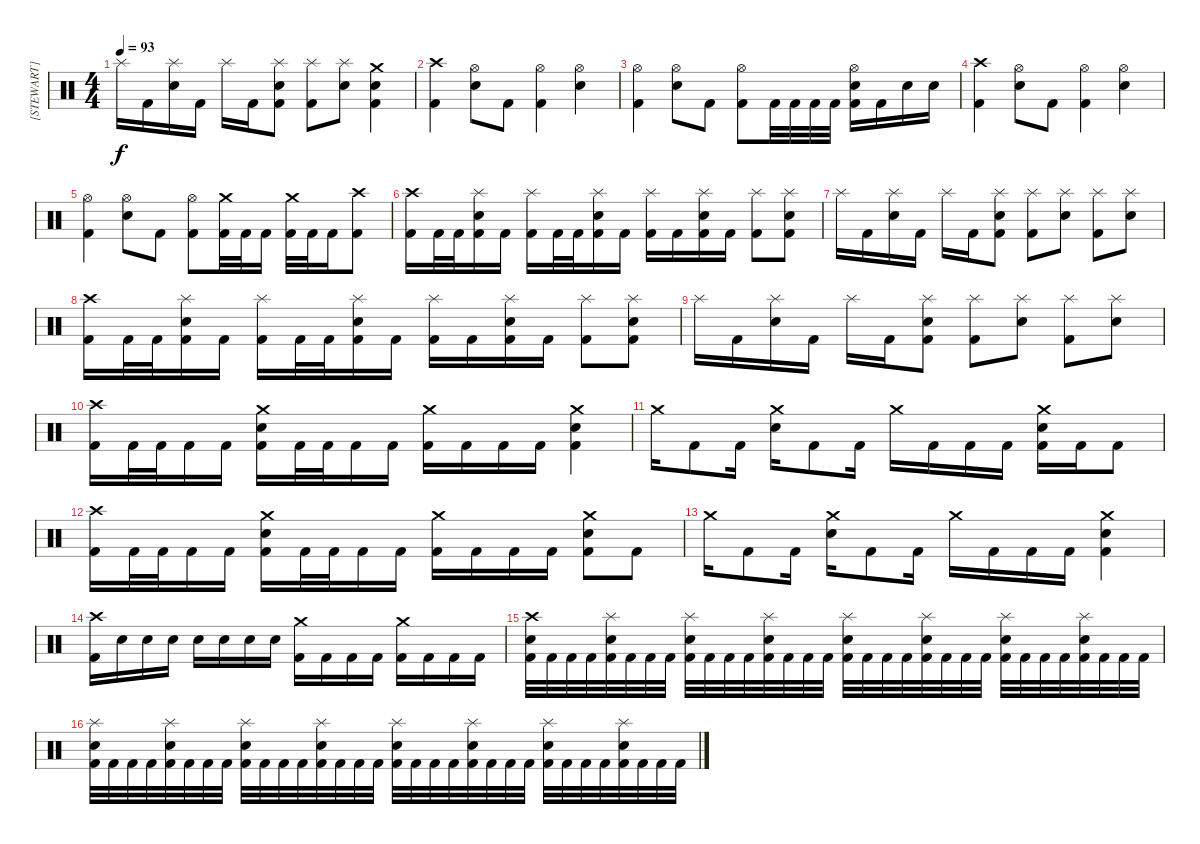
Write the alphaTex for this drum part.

\track ("[STEWART]" "[STEWART]") {instrument percussion}
\staff {score}
\articulation defaults
\ts (4 4)
\tempo 93
\clef neutral
\ks c "Splash (hit)".16{dy f} "Kick (hit) 2".16
("Splash (hit)" "Electric Snare (hit)").16 "Kick (hit) 2".16 "Splash (hit)".16 "Kick (hit) 2".16 ("Splash (hit)" "Electric Snare (hit)" "Kick (hit) 2").8 ("Splash (hit)" "Kick (hit) 2").8 ("Splash (hit)" "Electric Snare (hit)").8 ("Crash medium (hit)" "Electric Snare (hit)" "Kick (hit) 2").4 |
("Crash high (hit)" "Kick (hit) 2").4 ("Hi-Hat (open)" "Electric Snare (hit)").8 "Kick (hit) 2".8 ("Hi-Hat (open)" "Kick (hit) 2").4 ("Hi-Hat (open)" "Electric Snare (hit)").4 |
("Hi-Hat (open)" "Kick (hit) 2").4 ("Hi-Hat (open)" "Electric Snare (hit)").8 "Kick (hit) 2".8 ("Hi-Hat (open)" "Kick (hit) 2").8 "Kick (hit) 2".32 "Kick (hit) 2".32 "Kick (hit) 2".32 "Kick (hit) 2".32 ("Hi-Hat (open)" "Electric Snare (hit)" "Kick (hit) 2").16 "Kick (hit) 2".16 "Electric Snare (hit)".16 "Electric Snare (hit)".16 |
("Crash high (hit)" "Kick (hit) 2").4 ("Hi-Hat (open)" "Electric Snare (hit)").8 "Kick (hit) 2".8 ("Hi-Hat (open)" "Kick (hit) 2").4 ("Hi-Hat (open)" "Electric Snare (hit)").4 |
("Hi-Hat (open)" "Kick (hit) 2").4 ("Hi-Hat (open)" "Electric Snare (hit)").8 "Kick (hit) 2".8 ("Hi-Hat (open)" "Kick (hit) 2").8 ("Crash medium (hit)" "Kick (hit) 2").32 "Kick (hit) 2".32 "Kick (hit) 2".16 ("Crash medium (hit)" "Kick (hit) 2").32 "Kick (hit) 2".32 "Kick (hit) 2".16 ("Crash high (hit)" "Kick (hit) 2").8 |
("Crash high (hit)" "Kick (hit) 2").16 "Kick (hit) 2".32 "Kick (hit) 2".32 ("Splash (hit)" "Electric Snare (hit)" "Kick (hit) 2").16 "Kick (hit) 2".16 ("Splash (hit)" "Kick (hit) 2").16 "Kick (hit) 2".32 "Kick (hit) 2".32 ("Splash (hit)" "Electric Snare (hit)" "Kick (hit) 2").16 "Kick (hit) 2".16 ("Splash (hit)" "Kick (hit) 2").16 "Kick (hit) 2".16 ("Splash (hit)" "Electric Snare (hit)" "Kick (hit) 2").16 "Kick (hit) 2".16 ("Splash (hit)" "Kick (hit) 2").8 ("Splash (hit)" "Electric Snare (hit)" "Kick (hit) 2").8 |
"Splash (hit)".16 "Kick (hit) 2".16 ("Splash (hit)" "Electric Snare (hit)").16 "Kick (hit) 2".16 "Splash (hit)".16 "Kick (hit) 2".16 ("Splash (hit)" "Electric Snare (hit)" "Kick (hit) 2").8 ("Splash (hit)" "Kick (hit) 2").8 ("Splash (hit)" "Electric Snare (hit)").8 ("Splash (hit)" "Kick (hit) 2").8 ("Splash (hit)" "Electric Snare (hit)").8 |
("Crash high (hit)" "Kick (hit) 2").16 "Kick (hit) 2".32 "Kick (hit) 2".32 ("Splash (hit)" "Electric Snare (hit)" "Kick (hit) 2").16 "Kick (hit) 2".16 ("Splash (hit)" "Kick (hit) 2").16 "Kick (hit) 2".32 "Kick (hit) 2".32 ("Splash (hit)" "Electric Snare (hit)" "Kick (hit) 2").16 "Kick (hit) 2".16 ("Splash (hit)" "Kick (hit) 2").16 "Kick (hit) 2".16 ("Splash (hit)" "Electric Snare (hit)" "Kick (hit) 2").16 "Kick (hit) 2".16 ("Splash (hit)" "Kick (hit) 2").8 ("Splash (hit)" "Electric Snare (hit)" "Kick (hit) 2").8 |
"Splash (hit)".16 "Kick (hit) 2".16 ("Splash (hit)" "Electric Snare (hit)").16 "Kick (hit) 2".16 "Splash (hit)".16 "Kick (hit) 2".16 ("Splash (hit)" "Electric Snare (hit)" "Kick (hit) 2").8 ("Splash (hit)" "Kick (hit) 2").8 ("Splash (hit)" "Electric Snare (hit)").8 ("Splash (hit)" "Kick (hit) 2").8 ("Splash (hit)" "Electric Snare (hit)").8 |
("Crash high (hit)" "Kick (hit) 2").16 "Kick (hit) 2".32 "Kick (hit) 2".32 "Kick (hit) 2".16 "Kick (hit) 2".16 ("Crash medium (hit)" "Electric Snare (hit)" "Kick (hit) 2").16 "Kick (hit) 2".32 "Kick (hit) 2".32 "Kick (hit) 2".16 "Kick (hit) 2".16 ("Crash medium (hit)" "Kick (hit) 2").16 "Kick (hit) 2".16 "Kick (hit) 2".16 "Kick (hit) 2".16 ("Crash medium (hit)" "Electric Snare (hit)" "Kick (hit) 2").4 |
"Crash medium (hit)".16 "Kick (hit) 2".8 "Kick (hit) 2".16 ("Crash medium (hit)" "Electric Snare (hit)").16 "Kick (hit) 2".8 "Kick (hit) 2".16 "Crash medium (hit)".16 "Kick (hit) 2".16 "Kick (hit) 2".16 "Kick (hit) 2".16 ("Crash medium (hit)" "Electric Snare (hit)" "Kick (hit) 2").16 "Kick (hit) 2".16 "Kick (hit) 2".8 |
("Crash high (hit)" "Kick (hit) 2").16 "Kick (hit) 2".32 "Kick (hit) 2".32 "Kick (hit) 2".16 "Kick (hit) 2".16 ("Crash medium (hit)" "Electric Snare (hit)" "Kick (hit) 2").16 "Kick (hit) 2".32 "Kick (hit) 2".32 "Kick (hit) 2".16 "Kick (hit) 2".16 ("Crash medium (hit)" "Kick (hit) 2").16 "Kick (hit) 2".16 "Kick (hit) 2".16 "Kick (hit) 2".16 ("Crash medium (hit)" "Electric Snare (hit)" "Kick (hit) 2").8 "Kick (hit) 2".8 |
"Crash medium (hit)".16 "Kick (hit) 2".8 "Kick (hit) 2".16 ("Crash medium (hit)" "Electric Snare (hit)").16 "Kick (hit) 2".8 "Kick (hit) 2".16 "Crash medium (hit)".16 "Kick (hit) 2".16 "Kick (hit) 2".16 "Kick (hit) 2".16 ("Crash medium (hit)" "Electric Snare (hit)" "Kick (hit) 2").4 |
("Crash high (hit)" "Kick (hit) 2").16 "Electric Snare (hit)".16 "Electric Snare (hit)".16 "Electric Snare (hit)".16 "Electric Snare (hit)".16 "Electric Snare (hit)".16 "Electric Snare (hit)".16 "Electric Snare (hit)".16 ("Crash medium (hit)" "Kick (hit) 2").16 "Kick (hit) 2".16 "Kick (hit) 2".16 "Kick (hit) 2".16 ("Crash medium (hit)" "Kick (hit) 2").16 "Kick (hit) 2".16 "Kick (hit) 2".16 "Kick (hit) 2".16 |
("Crash high (hit)" "Electric Snare (hit)" "Kick (hit) 2").32 "Kick (hit) 2".32 "Kick (hit) 2".32 "Kick (hit) 2".32 ("Splash (hit)" "Electric Snare (hit)" "Kick (hit) 2").32 "Kick (hit) 2".32 "Kick (hit) 2".32 "Kick (hit) 2".32 ("Splash (hit)" "Electric Snare (hit)" "Kick (hit) 2").32 "Kick (hit) 2".32 "Kick (hit) 2".32 "Kick (hit) 2".32 ("Splash (hit)" "Electric Snare (hit)" "Kick (hit) 2").32 "Kick (hit) 2".32 "Kick (hit) 2".32 "Kick (hit) 2".32 ("Splash (hit)" "Electric Snare (hit)" "Kick (hit) 2").32 "Kick (hit) 2".32 "Kick (hit) 2".32 "Kick (hit) 2".32 ("Splash (hit)" "Electric Snare (hit)" "Kick (hit) 2").32 "Kick (hit) 2".32 "Kick (hit) 2".32 "Kick (hit) 2".32 ("Splash (hit)" "Electric Snare (hit)" "Kick (hit) 2").32 "Kick (hit) 2".32 "Kick (hit) 2".32 "Kick (hit) 2".32 ("Splash (hit)" "Electric Snare (hit)" "Kick (hit) 2").32 "Kick (hit) 2".32 "Kick (hit) 2".32 "Kick (hit) 2".32 |
("Splash (hit)" "Electric Snare (hit)" "Kick (hit) 2").32 "Kick (hit) 2".32 "Kick (hit) 2".32 "Kick (hit) 2".32 ("Splash (hit)" "Electric Snare (hit)" "Kick (hit) 2").32 "Kick (hit) 2".32 "Kick (hit) 2".32 "Kick (hit) 2".32 ("Splash (hit)" "Electric Snare (hit)" "Kick (hit) 2").32 "Kick (hit) 2".32 "Kick (hit) 2".32 "Kick (hit) 2".32 ("Splash (hit)" "Electric Snare (hit)" "Kick (hit) 2").32 "Kick (hit) 2".32 "Kick (hit) 2".32 "Kick (hit) 2".32 ("Splash (hit)" "Electric Snare (hit)" "Kick (hit) 2").32 "Kick (hit) 2".32 "Kick (hit) 2".32 "Kick (hit) 2".32 ("Splash (hit)" "Electric Snare (hit)" "Kick (hit) 2").32 "Kick (hit) 2".32 "Kick (hit) 2".32 "Kick (hit) 2".32 ("Splash (hit)" "Electric Snare (hit)" "Kick (hit) 2").32 "Kick (hit) 2".32 "Kick (hit) 2".32 "Kick (hit) 2".32 ("Splash (hit)" "Electric Snare (hit)" "Kick (hit) 2").32 "Kick (hit) 2".32 "Kick (hit) 2".32 "Kick (hit) 2".32
